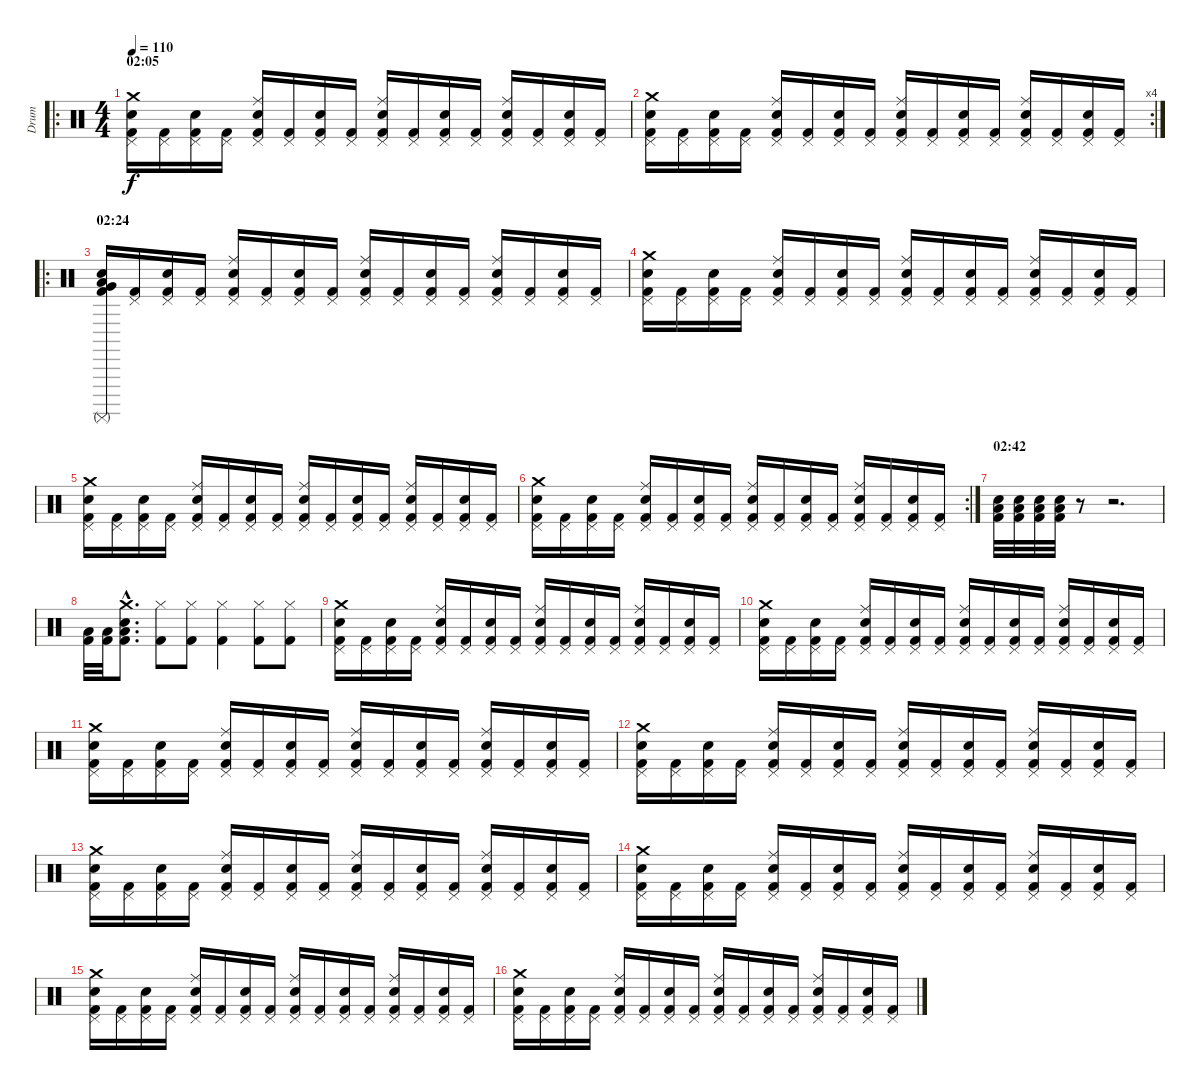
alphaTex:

\track ("Drum" "Drum") {instrument percussion}
\staff {score}
\articulation defaults
\ro
\ts (4 4)
\section ("" "02:05")
\tempo 110
\clef neutral
\ks c
("Crash medium (hit)" "Pedal Hi-Hat (hit)" "Snare (hit) 2" "Kick (hit) 2").16{dy f} ("Pedal Hi-Hat (hit)" "Kick (hit) 2").16 ("Pedal Hi-Hat (hit)" "Snare (hit) 2" "Kick (hit) 2").16 ("Pedal Hi-Hat (hit)" "Kick (hit) 2").16 ("Ride (middle)" "Pedal Hi-Hat (hit)" "Snare (hit) 2" "Kick (hit) 2").16 ("Pedal Hi-Hat (hit)" "Kick (hit) 2").16 ("Pedal Hi-Hat (hit)" "Snare (hit) 2" "Kick (hit) 2").16 ("Pedal Hi-Hat (hit)" "Kick (hit) 2").16 ("Ride (middle)" "Pedal Hi-Hat (hit)" "Snare (hit) 2" "Kick (hit) 2").16 ("Pedal Hi-Hat (hit)" "Kick (hit) 2").16 ("Pedal Hi-Hat (hit)" "Snare (hit) 2" "Kick (hit) 2").16 ("Pedal Hi-Hat (hit)" "Kick (hit) 2").16 ("Ride (middle)" "Pedal Hi-Hat (hit)" "Snare (hit) 2" "Kick (hit) 2").16 ("Pedal Hi-Hat (hit)" "Kick (hit) 2").16 ("Pedal Hi-Hat (hit)" "Snare (hit) 2" "Kick (hit) 2").16 ("Pedal Hi-Hat (hit)" "Kick (hit) 2").16 |
\rc 4
("Crash medium (hit)" "Pedal Hi-Hat (hit)" "Snare (hit) 2" "Kick (hit) 2").16 ("Pedal Hi-Hat (hit)" "Kick (hit) 2").16 ("Pedal Hi-Hat (hit)" "Snare (hit) 2" "Kick (hit) 2").16 ("Pedal Hi-Hat (hit)" "Kick (hit) 2").16 ("Ride (middle)" "Pedal Hi-Hat (hit)" "Snare (hit) 2" "Kick (hit) 2").16 ("Pedal Hi-Hat (hit)" "Kick (hit) 2").16 ("Pedal Hi-Hat (hit)" "Snare (hit) 2" "Kick (hit) 2").16 ("Pedal Hi-Hat (hit)" "Kick (hit) 2").16 ("Ride (middle)" "Pedal Hi-Hat (hit)" "Snare (hit) 2" "Kick (hit) 2").16 ("Pedal Hi-Hat (hit)" "Kick (hit) 2").16 ("Pedal Hi-Hat (hit)" "Snare (hit) 2" "Kick (hit) 2").16 ("Pedal Hi-Hat (hit)" "Kick (hit) 2").16 ("Ride (middle)" "Pedal Hi-Hat (hit)" "Snare (hit) 2" "Kick (hit) 2").16 ("Pedal Hi-Hat (hit)" "Kick (hit) 2").16 ("Pedal Hi-Hat (hit)" "Snare (hit) 2" "Kick (hit) 2").16 ("Pedal Hi-Hat (hit)" "Kick (hit) 2").16 |
\ro
\section ("" "02:24")
("Very Low Tom (hit)" "Low Floor Tom (hit)" "Surdo (mute)" "Snare (hit) 2" "Kick (hit) 2").16 ("Pedal Hi-Hat (hit)" "Kick (hit) 2").16 ("Pedal Hi-Hat (hit)" "Snare (hit) 2" "Kick (hit) 2").16 ("Pedal Hi-Hat (hit)" "Kick (hit) 2").16 ("Ride (middle)" "Pedal Hi-Hat (hit)" "Snare (hit) 2" "Kick (hit) 2").16 ("Pedal Hi-Hat (hit)" "Kick (hit) 2").16 ("Pedal Hi-Hat (hit)" "Snare (hit) 2" "Kick (hit) 2").16 ("Pedal Hi-Hat (hit)" "Kick (hit) 2").16 ("Ride (middle)" "Pedal Hi-Hat (hit)" "Snare (hit) 2" "Kick (hit) 2").16 ("Pedal Hi-Hat (hit)" "Kick (hit) 2").16 ("Pedal Hi-Hat (hit)" "Snare (hit) 2" "Kick (hit) 2").16 ("Pedal Hi-Hat (hit)" "Kick (hit) 2").16 ("Ride (middle)" "Pedal Hi-Hat (hit)" "Snare (hit) 2" "Kick (hit) 2").16 ("Pedal Hi-Hat (hit)" "Kick (hit) 2").16 ("Pedal Hi-Hat (hit)" "Snare (hit) 2" "Kick (hit) 2").16 ("Pedal Hi-Hat (hit)" "Kick (hit) 2").16 |
("Crash medium (hit)" "Pedal Hi-Hat (hit)" "Snare (hit) 2" "Kick (hit) 2").16 ("Pedal Hi-Hat (hit)" "Kick (hit) 2").16 ("Pedal Hi-Hat (hit)" "Snare (hit) 2" "Kick (hit) 2").16 ("Pedal Hi-Hat (hit)" "Kick (hit) 2").16 ("Ride (middle)" "Pedal Hi-Hat (hit)" "Snare (hit) 2" "Kick (hit) 2").16 ("Pedal Hi-Hat (hit)" "Kick (hit) 2").16 ("Pedal Hi-Hat (hit)" "Snare (hit) 2" "Kick (hit) 2").16 ("Pedal Hi-Hat (hit)" "Kick (hit) 2").16 ("Ride (middle)" "Pedal Hi-Hat (hit)" "Snare (hit) 2" "Kick (hit) 2").16 ("Pedal Hi-Hat (hit)" "Kick (hit) 2").16 ("Pedal Hi-Hat (hit)" "Snare (hit) 2" "Kick (hit) 2").16 ("Pedal Hi-Hat (hit)" "Kick (hit) 2").16 ("Ride (middle)" "Pedal Hi-Hat (hit)" "Snare (hit) 2" "Kick (hit) 2").16 ("Pedal Hi-Hat (hit)" "Kick (hit) 2").16 ("Pedal Hi-Hat (hit)" "Snare (hit) 2" "Kick (hit) 2").16 ("Pedal Hi-Hat (hit)" "Kick (hit) 2").16 |
("Crash medium (hit)" "Pedal Hi-Hat (hit)" "Snare (hit) 2" "Kick (hit) 2").16 ("Pedal Hi-Hat (hit)" "Kick (hit) 2").16 ("Pedal Hi-Hat (hit)" "Snare (hit) 2" "Kick (hit) 2").16 ("Pedal Hi-Hat (hit)" "Kick (hit) 2").16 ("Ride (middle)" "Pedal Hi-Hat (hit)" "Snare (hit) 2" "Kick (hit) 2").16 ("Pedal Hi-Hat (hit)" "Kick (hit) 2").16 ("Pedal Hi-Hat (hit)" "Snare (hit) 2" "Kick (hit) 2").16 ("Pedal Hi-Hat (hit)" "Kick (hit) 2").16 ("Ride (middle)" "Pedal Hi-Hat (hit)" "Snare (hit) 2" "Kick (hit) 2").16 ("Pedal Hi-Hat (hit)" "Kick (hit) 2").16 ("Pedal Hi-Hat (hit)" "Snare (hit) 2" "Kick (hit) 2").16 ("Pedal Hi-Hat (hit)" "Kick (hit) 2").16 ("Ride (middle)" "Pedal Hi-Hat (hit)" "Snare (hit) 2" "Kick (hit) 2").16 ("Pedal Hi-Hat (hit)" "Kick (hit) 2").16 ("Pedal Hi-Hat (hit)" "Snare (hit) 2" "Kick (hit) 2").16 ("Pedal Hi-Hat (hit)" "Kick (hit) 2").16 |
\rc 2
("Crash medium (hit)" "Pedal Hi-Hat (hit)" "Snare (hit) 2" "Kick (hit) 2").16 ("Pedal Hi-Hat (hit)" "Kick (hit) 2").16 ("Pedal Hi-Hat (hit)" "Snare (hit) 2" "Kick (hit) 2").16 ("Pedal Hi-Hat (hit)" "Kick (hit) 2").16 ("Ride (middle)" "Pedal Hi-Hat (hit)" "Snare (hit) 2" "Kick (hit) 2").16 ("Pedal Hi-Hat (hit)" "Kick (hit) 2").16 ("Pedal Hi-Hat (hit)" "Snare (hit) 2" "Kick (hit) 2").16 ("Pedal Hi-Hat (hit)" "Kick (hit) 2").16 ("Ride (middle)" "Pedal Hi-Hat (hit)" "Snare (hit) 2" "Kick (hit) 2").16 ("Pedal Hi-Hat (hit)" "Kick (hit) 2").16 ("Pedal Hi-Hat (hit)" "Snare (hit) 2" "Kick (hit) 2").16 ("Pedal Hi-Hat (hit)" "Kick (hit) 2").16 ("Ride (middle)" "Pedal Hi-Hat (hit)" "Snare (hit) 2" "Kick (hit) 2").16 ("Pedal Hi-Hat (hit)" "Kick (hit) 2").16 ("Pedal Hi-Hat (hit)" "Snare (hit) 2" "Kick (hit) 2").16 ("Pedal Hi-Hat (hit)" "Kick (hit) 2").16 |
\section ("" "02:42")
("Low Floor Tom (hit)" "Kick (hit) 2" "Snare (hit) 2").32 ("Low Floor Tom (hit)" "Kick (hit) 2" "Snare (hit) 2").32 ("Low Floor Tom (hit)" "Kick (hit) 2" "Snare (hit) 2").32 ("Low Floor Tom (hit)" "Kick (hit) 2" "Snare (hit) 2").32 r.8 r.2{d} |
("Low Floor Tom (hit)" "Kick (hit) 2").32 ("Low Floor Tom (hit)" "Kick (hit) 2").32 ("Low Floor Tom (hit)"{hac} "Kick (hit) 2" "Snare (hit) 2"{hac} "Crash medium (hit)"{hac}).8{d} ("Kick (hit) 2" "Hi-Hat (closed)").8 ("Hi-Hat (closed)" "Kick (hit) 2").8 ("Hi-Hat (closed)" "Kick (hit) 2").4 ("Hi-Hat (closed)" "Kick (hit) 2").8 ("Hi-Hat (closed)" "Kick (hit) 2").8 |
("Crash medium (hit)" "Pedal Hi-Hat (hit)" "Snare (hit) 2" "Kick (hit) 2").16 ("Pedal Hi-Hat (hit)" "Kick (hit) 2").16 ("Pedal Hi-Hat (hit)" "Snare (hit) 2" "Kick (hit) 2").16 ("Pedal Hi-Hat (hit)" "Kick (hit) 2").16 ("Ride (middle)" "Pedal Hi-Hat (hit)" "Snare (hit) 2" "Kick (hit) 2").16 ("Pedal Hi-Hat (hit)" "Kick (hit) 2").16 ("Pedal Hi-Hat (hit)" "Snare (hit) 2" "Kick (hit) 2").16 ("Pedal Hi-Hat (hit)" "Kick (hit) 2").16 ("Ride (middle)" "Pedal Hi-Hat (hit)" "Snare (hit) 2" "Kick (hit) 2").16 ("Pedal Hi-Hat (hit)" "Kick (hit) 2").16 ("Pedal Hi-Hat (hit)" "Snare (hit) 2" "Kick (hit) 2").16 ("Pedal Hi-Hat (hit)" "Kick (hit) 2").16 ("Ride (middle)" "Pedal Hi-Hat (hit)" "Snare (hit) 2" "Kick (hit) 2").16 ("Pedal Hi-Hat (hit)" "Kick (hit) 2").16 ("Pedal Hi-Hat (hit)" "Snare (hit) 2" "Kick (hit) 2").16 ("Pedal Hi-Hat (hit)" "Kick (hit) 2").16 |
("Crash medium (hit)" "Pedal Hi-Hat (hit)" "Snare (hit) 2" "Kick (hit) 2").16 ("Pedal Hi-Hat (hit)" "Kick (hit) 2").16 ("Pedal Hi-Hat (hit)" "Snare (hit) 2" "Kick (hit) 2").16 ("Pedal Hi-Hat (hit)" "Kick (hit) 2").16 ("Ride (middle)" "Pedal Hi-Hat (hit)" "Snare (hit) 2" "Kick (hit) 2").16 ("Pedal Hi-Hat (hit)" "Kick (hit) 2").16 ("Pedal Hi-Hat (hit)" "Snare (hit) 2" "Kick (hit) 2").16 ("Pedal Hi-Hat (hit)" "Kick (hit) 2").16 ("Ride (middle)" "Pedal Hi-Hat (hit)" "Snare (hit) 2" "Kick (hit) 2").16 ("Pedal Hi-Hat (hit)" "Kick (hit) 2").16 ("Pedal Hi-Hat (hit)" "Snare (hit) 2" "Kick (hit) 2").16 ("Pedal Hi-Hat (hit)" "Kick (hit) 2").16 ("Ride (middle)" "Pedal Hi-Hat (hit)" "Snare (hit) 2" "Kick (hit) 2").16 ("Pedal Hi-Hat (hit)" "Kick (hit) 2").16 ("Pedal Hi-Hat (hit)" "Snare (hit) 2" "Kick (hit) 2").16 ("Pedal Hi-Hat (hit)" "Kick (hit) 2").16 |
("Crash medium (hit)" "Pedal Hi-Hat (hit)" "Snare (hit) 2" "Kick (hit) 2").16 ("Pedal Hi-Hat (hit)" "Kick (hit) 2").16 ("Pedal Hi-Hat (hit)" "Snare (hit) 2" "Kick (hit) 2").16 ("Pedal Hi-Hat (hit)" "Kick (hit) 2").16 ("Ride (middle)" "Pedal Hi-Hat (hit)" "Snare (hit) 2" "Kick (hit) 2").16 ("Pedal Hi-Hat (hit)" "Kick (hit) 2").16 ("Pedal Hi-Hat (hit)" "Snare (hit) 2" "Kick (hit) 2").16 ("Pedal Hi-Hat (hit)" "Kick (hit) 2").16 ("Ride (middle)" "Pedal Hi-Hat (hit)" "Snare (hit) 2" "Kick (hit) 2").16 ("Pedal Hi-Hat (hit)" "Kick (hit) 2").16 ("Pedal Hi-Hat (hit)" "Snare (hit) 2" "Kick (hit) 2").16 ("Pedal Hi-Hat (hit)" "Kick (hit) 2").16 ("Ride (middle)" "Pedal Hi-Hat (hit)" "Snare (hit) 2" "Kick (hit) 2").16 ("Pedal Hi-Hat (hit)" "Kick (hit) 2").16 ("Pedal Hi-Hat (hit)" "Snare (hit) 2" "Kick (hit) 2").16 ("Pedal Hi-Hat (hit)" "Kick (hit) 2").16 |
("Crash medium (hit)" "Pedal Hi-Hat (hit)" "Snare (hit) 2" "Kick (hit) 2").16 ("Pedal Hi-Hat (hit)" "Kick (hit) 2").16 ("Pedal Hi-Hat (hit)" "Snare (hit) 2" "Kick (hit) 2").16 ("Pedal Hi-Hat (hit)" "Kick (hit) 2").16 ("Ride (middle)" "Pedal Hi-Hat (hit)" "Snare (hit) 2" "Kick (hit) 2").16 ("Pedal Hi-Hat (hit)" "Kick (hit) 2").16 ("Pedal Hi-Hat (hit)" "Snare (hit) 2" "Kick (hit) 2").16 ("Pedal Hi-Hat (hit)" "Kick (hit) 2").16 ("Ride (middle)" "Pedal Hi-Hat (hit)" "Snare (hit) 2" "Kick (hit) 2").16 ("Pedal Hi-Hat (hit)" "Kick (hit) 2").16 ("Pedal Hi-Hat (hit)" "Snare (hit) 2" "Kick (hit) 2").16 ("Pedal Hi-Hat (hit)" "Kick (hit) 2").16 ("Ride (middle)" "Pedal Hi-Hat (hit)" "Snare (hit) 2" "Kick (hit) 2").16 ("Pedal Hi-Hat (hit)" "Kick (hit) 2").16 ("Pedal Hi-Hat (hit)" "Snare (hit) 2" "Kick (hit) 2").16 ("Pedal Hi-Hat (hit)" "Kick (hit) 2").16 |
("Crash medium (hit)" "Pedal Hi-Hat (hit)" "Snare (hit) 2" "Kick (hit) 2").16 ("Pedal Hi-Hat (hit)" "Kick (hit) 2").16 ("Pedal Hi-Hat (hit)" "Snare (hit) 2" "Kick (hit) 2").16 ("Pedal Hi-Hat (hit)" "Kick (hit) 2").16 ("Ride (middle)" "Pedal Hi-Hat (hit)" "Snare (hit) 2" "Kick (hit) 2").16 ("Pedal Hi-Hat (hit)" "Kick (hit) 2").16 ("Pedal Hi-Hat (hit)" "Snare (hit) 2" "Kick (hit) 2").16 ("Pedal Hi-Hat (hit)" "Kick (hit) 2").16 ("Ride (middle)" "Pedal Hi-Hat (hit)" "Snare (hit) 2" "Kick (hit) 2").16 ("Pedal Hi-Hat (hit)" "Kick (hit) 2").16 ("Pedal Hi-Hat (hit)" "Snare (hit) 2" "Kick (hit) 2").16 ("Pedal Hi-Hat (hit)" "Kick (hit) 2").16 ("Ride (middle)" "Pedal Hi-Hat (hit)" "Snare (hit) 2" "Kick (hit) 2").16 ("Pedal Hi-Hat (hit)" "Kick (hit) 2").16 ("Pedal Hi-Hat (hit)" "Snare (hit) 2" "Kick (hit) 2").16 ("Pedal Hi-Hat (hit)" "Kick (hit) 2").16 |
("Crash medium (hit)" "Pedal Hi-Hat (hit)" "Snare (hit) 2" "Kick (hit) 2").16 ("Pedal Hi-Hat (hit)" "Kick (hit) 2").16 ("Pedal Hi-Hat (hit)" "Snare (hit) 2" "Kick (hit) 2").16 ("Pedal Hi-Hat (hit)" "Kick (hit) 2").16 ("Ride (middle)" "Pedal Hi-Hat (hit)" "Snare (hit) 2" "Kick (hit) 2").16 ("Pedal Hi-Hat (hit)" "Kick (hit) 2").16 ("Pedal Hi-Hat (hit)" "Snare (hit) 2" "Kick (hit) 2").16 ("Pedal Hi-Hat (hit)" "Kick (hit) 2").16 ("Ride (middle)" "Pedal Hi-Hat (hit)" "Snare (hit) 2" "Kick (hit) 2").16 ("Pedal Hi-Hat (hit)" "Kick (hit) 2").16 ("Pedal Hi-Hat (hit)" "Snare (hit) 2" "Kick (hit) 2").16 ("Pedal Hi-Hat (hit)" "Kick (hit) 2").16 ("Ride (middle)" "Pedal Hi-Hat (hit)" "Snare (hit) 2" "Kick (hit) 2").16 ("Pedal Hi-Hat (hit)" "Kick (hit) 2").16 ("Pedal Hi-Hat (hit)" "Snare (hit) 2" "Kick (hit) 2").16 ("Pedal Hi-Hat (hit)" "Kick (hit) 2").16 |
("Crash medium (hit)" "Pedal Hi-Hat (hit)" "Snare (hit) 2" "Kick (hit) 2").16 ("Pedal Hi-Hat (hit)" "Kick (hit) 2").16 ("Pedal Hi-Hat (hit)" "Snare (hit) 2" "Kick (hit) 2").16 ("Pedal Hi-Hat (hit)" "Kick (hit) 2").16 ("Ride (middle)" "Pedal Hi-Hat (hit)" "Snare (hit) 2" "Kick (hit) 2").16 ("Pedal Hi-Hat (hit)" "Kick (hit) 2").16 ("Pedal Hi-Hat (hit)" "Snare (hit) 2" "Kick (hit) 2").16 ("Pedal Hi-Hat (hit)" "Kick (hit) 2").16 ("Ride (middle)" "Pedal Hi-Hat (hit)" "Snare (hit) 2" "Kick (hit) 2").16 ("Pedal Hi-Hat (hit)" "Kick (hit) 2").16 ("Pedal Hi-Hat (hit)" "Snare (hit) 2" "Kick (hit) 2").16 ("Pedal Hi-Hat (hit)" "Kick (hit) 2").16 ("Ride (middle)" "Pedal Hi-Hat (hit)" "Snare (hit) 2" "Kick (hit) 2").16 ("Pedal Hi-Hat (hit)" "Kick (hit) 2").16 ("Pedal Hi-Hat (hit)" "Snare (hit) 2" "Kick (hit) 2").16 ("Pedal Hi-Hat (hit)" "Kick (hit) 2").16 |
("Crash medium (hit)" "Pedal Hi-Hat (hit)" "Snare (hit) 2" "Kick (hit) 2").16 ("Pedal Hi-Hat (hit)" "Kick (hit) 2").16 ("Pedal Hi-Hat (hit)" "Snare (hit) 2" "Kick (hit) 2").16 ("Pedal Hi-Hat (hit)" "Kick (hit) 2").16 ("Ride (middle)" "Pedal Hi-Hat (hit)" "Snare (hit) 2" "Kick (hit) 2").16 ("Pedal Hi-Hat (hit)" "Kick (hit) 2").16 ("Pedal Hi-Hat (hit)" "Snare (hit) 2" "Kick (hit) 2").16 ("Pedal Hi-Hat (hit)" "Kick (hit) 2").16 ("Ride (middle)" "Pedal Hi-Hat (hit)" "Snare (hit) 2" "Kick (hit) 2").16 ("Pedal Hi-Hat (hit)" "Kick (hit) 2").16 ("Pedal Hi-Hat (hit)" "Snare (hit) 2" "Kick (hit) 2").16 ("Pedal Hi-Hat (hit)" "Kick (hit) 2").16 ("Ride (middle)" "Pedal Hi-Hat (hit)" "Snare (hit) 2" "Kick (hit) 2").16 ("Pedal Hi-Hat (hit)" "Kick (hit) 2").16 ("Pedal Hi-Hat (hit)" "Snare (hit) 2" "Kick (hit) 2").16 ("Pedal Hi-Hat (hit)" "Kick (hit) 2").16
